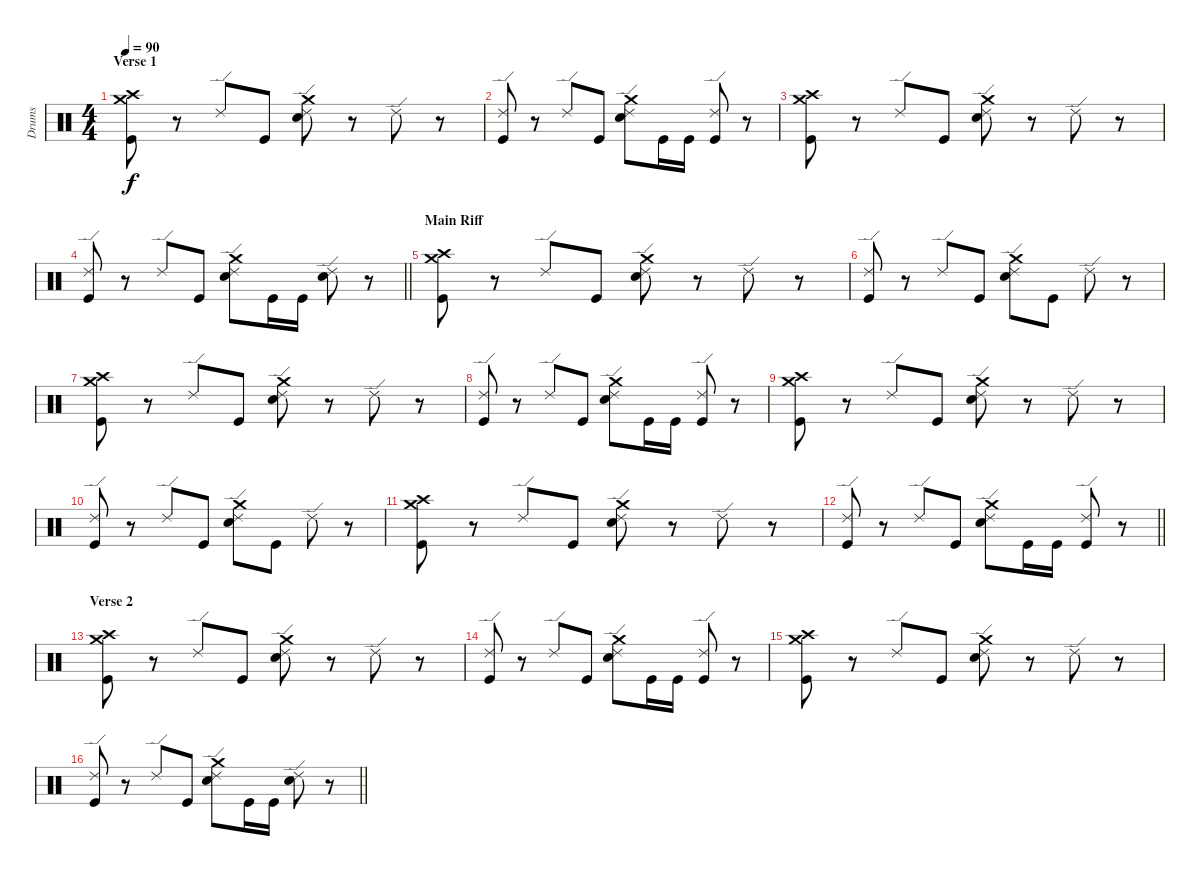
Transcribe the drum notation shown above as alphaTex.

\track ("Drums" "Drums") {instrument percussion}
\staff {score}
\articulation defaults
\ts (4 4)
\section ("" "Verse 1")
\tempo 90
\clef neutral
\ks c
("Crash high (hit)" "Kick (hit)" "Crash medium (hit)").8{dy f} r.8 "Ride (edge) 2".8 "Kick (hit)".8 ("Ride (edge) 2" "Snare (hit) 2" "Crash medium (hit)").8 r.8 "Ride (edge) 2".8 r.8 |
("Ride (edge) 2" "Kick (hit)").8 r.8 "Ride (edge) 2".8 "Kick (hit)".8 ("Ride (edge) 2" "Snare (hit) 2" "Crash medium (hit)").8 "Kick (hit)".16 "Kick (hit)".16 ("Ride (edge) 2" "Kick (hit)").8 r.8 |
("Crash high (hit)" "Kick (hit)" "Crash medium (hit)").8 r.8 "Ride (edge) 2".8 "Kick (hit)".8 ("Ride (edge) 2" "Snare (hit) 2" "Crash medium (hit)").8 r.8 "Ride (edge) 2".8 r.8 |
\barLineRight lightlight
("Ride (edge) 2" "Kick (hit)").8 r.8 "Ride (edge) 2".8 "Kick (hit)".8 ("Ride (edge) 2" "Snare (hit) 2" "Crash medium (hit)").8 "Kick (hit)".16 "Kick (hit)".16 ("Ride (edge) 2" "Snare (hit) 2").8 r.8 |
\section ("" "Main Riff")
("Crash high (hit)" "Kick (hit)" "Crash medium (hit)").8 r.8 "Ride (edge) 2".8 "Kick (hit)".8 ("Ride (edge) 2" "Snare (hit) 2" "Crash medium (hit)").8 r.8 "Ride (edge) 2".8 r.8 |
("Ride (edge) 2" "Kick (hit)").8 r.8 "Ride (edge) 2".8 "Kick (hit)".8 ("Ride (edge) 2" "Snare (hit) 2" "Crash medium (hit)").8 "Kick (hit)".8 "Ride (edge) 2".8 r.8 |
("Crash high (hit)" "Kick (hit)" "Crash medium (hit)").8 r.8 "Ride (edge) 2".8 "Kick (hit)".8 ("Ride (edge) 2" "Snare (hit) 2" "Crash medium (hit)").8 r.8 "Ride (edge) 2".8 r.8 |
("Ride (edge) 2" "Kick (hit)").8 r.8 "Ride (edge) 2".8 "Kick (hit)".8 ("Ride (edge) 2" "Snare (hit) 2" "Crash medium (hit)").8 "Kick (hit)".16 "Kick (hit)".16 ("Ride (edge) 2" "Kick (hit)").8 r.8 |
("Crash high (hit)" "Kick (hit)" "Crash medium (hit)").8 r.8 "Ride (edge) 2".8 "Kick (hit)".8 ("Ride (edge) 2" "Snare (hit) 2" "Crash medium (hit)").8 r.8 "Ride (edge) 2".8 r.8 |
("Ride (edge) 2" "Kick (hit)").8 r.8 "Ride (edge) 2".8 "Kick (hit)".8 ("Ride (edge) 2" "Snare (hit) 2" "Crash medium (hit)").8 "Kick (hit)".8 "Ride (edge) 2".8 r.8 |
("Crash high (hit)" "Kick (hit)" "Crash medium (hit)").8 r.8 "Ride (edge) 2".8 "Kick (hit)".8 ("Ride (edge) 2" "Snare (hit) 2" "Crash medium (hit)").8 r.8 "Ride (edge) 2".8 r.8 |
\barLineRight lightlight
("Ride (edge) 2" "Kick (hit)").8 r.8 "Ride (edge) 2".8 "Kick (hit)".8 ("Ride (edge) 2" "Snare (hit) 2" "Crash medium (hit)").8 "Kick (hit)".16 "Kick (hit)".16 ("Ride (edge) 2" "Kick (hit)").8 r.8 |
\section ("" "Verse 2")
("Crash high (hit)" "Kick (hit)" "Crash medium (hit)").8 r.8 "Ride (edge) 2".8 "Kick (hit)".8 ("Ride (edge) 2" "Snare (hit) 2" "Crash medium (hit)").8 r.8 "Ride (edge) 2".8 r.8 |
("Ride (edge) 2" "Kick (hit)").8 r.8 "Ride (edge) 2".8 "Kick (hit)".8 ("Ride (edge) 2" "Snare (hit) 2" "Crash medium (hit)").8 "Kick (hit)".16 "Kick (hit)".16 ("Ride (edge) 2" "Kick (hit)").8 r.8 |
("Crash high (hit)" "Kick (hit)" "Crash medium (hit)").8 r.8 "Ride (edge) 2".8 "Kick (hit)".8 ("Ride (edge) 2" "Snare (hit) 2" "Crash medium (hit)").8 r.8 "Ride (edge) 2".8 r.8 |
\barLineRight lightlight
("Ride (edge) 2" "Kick (hit)").8 r.8 "Ride (edge) 2".8 "Kick (hit)".8 ("Ride (edge) 2" "Snare (hit) 2" "Crash medium (hit)").8 "Kick (hit)".16 "Kick (hit)".16 ("Ride (edge) 2" "Snare (hit) 2").8 r.8
